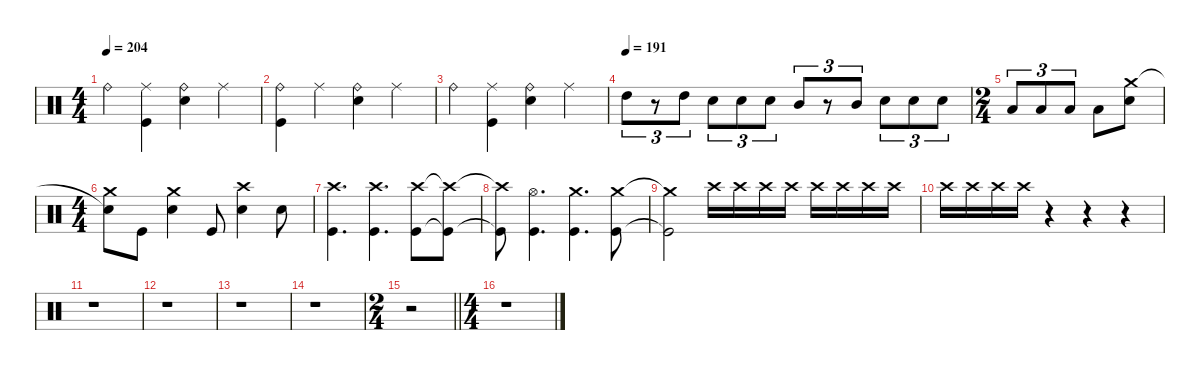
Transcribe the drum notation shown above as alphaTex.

\defaultSystemsLayout 4
\hideDynamics
\bracketExtendMode nobrackets
\singleTrackTrackNamePolicy hidden
\multiTrackTrackNamePolicy hidden
\firstSystemTrackNameMode fullname
\firstSystemTrackNameOrientation horizontal
\otherSystemsTrackNameOrientation horizontal
\track ("Drumkit" "drm.") {instrument percussion}
\staff {score}
\articulation defaults
\ts (4 4)
\tempo 204
\clef neutral
\ks c "Ride (bell)".4{dy f beam Down}
("Ride (middle)" "Kick (hit)").4{dy mp beam Down} ("Ride (bell)" "Snare (hit) 2").4{dy f beam Down} "Ride (middle)".4{dy mp beam Down} |
("Ride (bell)" "Kick (hit)").4{dy f beam Down} "Ride (middle)".4{dy mp beam Down} ("Ride (bell)" "Snare (hit) 2").4{dy f beam Down} "Ride (middle)".4{dy mp beam Down} |
"Ride (bell)".4{dy f beam Down} ("Ride (middle)" "Kick (hit)").4{dy mp beam Down} ("Ride (bell)" "Snare (hit) 2").4{dy f beam Down} "Ride (middle)".4{dy mp beam Down} |
\beaming (8 3 2 2 1)
\tempo (191)
"High Tom (hit)".8{tu (3 2) dy ff beam Down} r.8{tu (3 2) beam Down} "High Tom (hit)".8{tu (3 2) beam Down} "Snare (hit) 2".8{tu (3 2) dy mp beam Down} "Snare (hit) 2".8{tu (3 2) dy mf beam Down} "Snare (hit) 2".8{tu (3 2) beam Down} "Mid Tom (hit)".8{tu (3 2) dy ff beam Up} r.8{tu (3 2) beam Up} "Mid Tom (hit)".8{tu (3 2) beam Up} "Snare (hit) 2".8{tu (3 2) dy mf beam Down} "Snare (hit) 2".8{tu (3 2) dy ff beam Down} "Snare (hit) 2".8{tu (3 2) beam Down} |
\ts (2 4)
\beaming (8 4)
"Low Tom (hit)".8{tu (3 2) dy f beam Up} "Low Tom (hit)".8{tu (3 2) beam Up} "Low Tom (hit)".8{tu (3 2) beam Up} "Low Tom (hit)".8{beam Down} ("Crash medium (hit)" "Snare (hit) 2").8{beam Down} |
\ts (4 4)
\beaming (8 2 2 2 2)
("Snare (hit) 2"{t} "Crash medium (hit)").8{beam Down} "Kick (hit)".8{beam Down} ("Snare (hit) 2" "Crash medium (hit)").4{beam Down} "Kick (hit)".8{beam Up} ("Snare (hit) 2" "Crash high (hit)").4{beam Down} "Snare (hit) 2".8{dy mf beam Down} |
("Kick (hit)" "Crash high (hit)").4{d dy f beam Down} ("Kick (hit)" "Crash high (hit)").4{d beam Down} ("Kick (hit)" "Crash high (hit)").8{beam Down} ("Kick (hit)"{t} "Crash high (hit)"{t}).8{beam Down} |
("Kick (hit)"{t} "Crash high (hit)"{t}).8{beam Down} ("Hi-Hat (open)" "Kick (hit)").4{d dy mf beam Down} ("Kick (hit)" "Crash medium (hit)").4{d beam Down} ("Crash medium (hit)" "Kick (hit)").8{dy f beam Down} |
("Crash medium (hit)"{t} "Kick (hit)"{t}).2{beam Down} "Crash high (hit)".16{dy ppp beam Down} "Crash high (hit)".16{beam Down} "Crash high (hit)".16{dy pp beam Down} "Crash high (hit)".16{beam Down} "Crash high (hit)".16{dy p beam Down} "Crash high (hit)".16{beam Down} "Crash high (hit)".16{dy mp beam Down} "Crash high (hit)".16{beam Down} |
"Crash high (hit)".16{dy mf beam Down} "Crash high (hit)".16{beam Down} "Crash high (hit)".16{dy f beam Down} "Crash high (hit)".16{beam Down} r.4{beam Down} r.4{beam Down} r.4{beam Down} |
r.1{beam Down} |
r.1{beam Down} |
r.1{beam Down} |
r.1{beam Down} |
\ts (2 4)
\beaming (8 2 2)
\barLineRight lightlight
r.2{beam Down} |
\ts (4 4)
\beaming (8 2 2 2 2)
r.1{beam Down}
